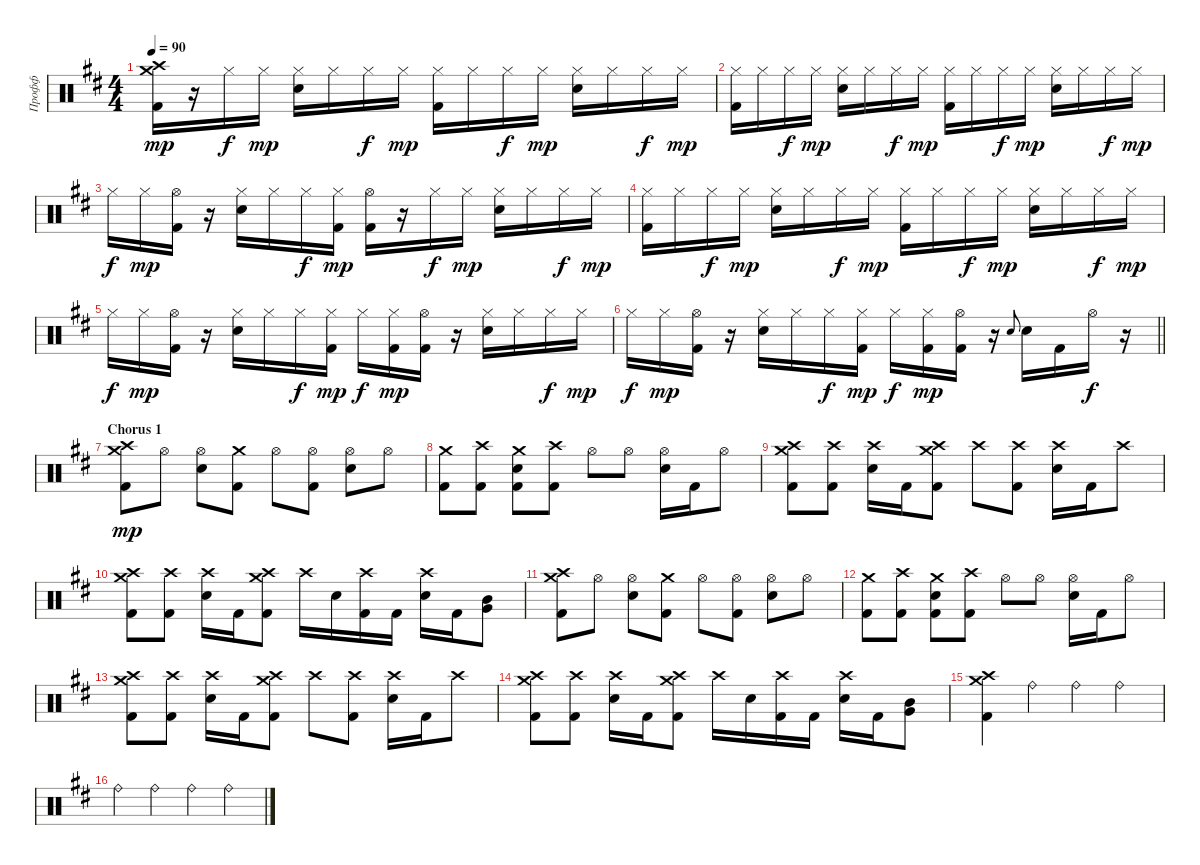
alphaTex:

\track ("Профф" "Профф") {instrument percussion}
\staff {score}
\articulation defaults
\ts (4 4)
\tempo 90
\clef neutral
\ks bminor
("Crash high (hit)" "Crash medium (hit)" "Kick (hit) 2").16{dy mp} r.16 "Hi-Hat (closed)".16{dy f} "Hi-Hat (closed)".16{dy mp} ("Hi-Hat (closed)" "Electric Snare (hit)").16 "Hi-Hat (closed)".16 "Hi-Hat (closed)".16{dy f} "Hi-Hat (closed)".16{dy mp} ("Hi-Hat (closed)" "Kick (hit) 2").16 "Hi-Hat (closed)".16 "Hi-Hat (closed)".16{dy f} "Hi-Hat (closed)".16{dy mp} ("Hi-Hat (closed)" "Electric Snare (hit)").16 "Hi-Hat (closed)".16 "Hi-Hat (closed)".16{dy f} "Hi-Hat (closed)".16{dy mp} |
("Hi-Hat (closed)" "Kick (hit) 2").16 "Hi-Hat (closed)".16 "Hi-Hat (closed)".16{dy f} "Hi-Hat (closed)".16{dy mp} ("Hi-Hat (closed)" "Electric Snare (hit)").16 "Hi-Hat (closed)".16 "Hi-Hat (closed)".16{dy f} "Hi-Hat (closed)".16{dy mp} ("Hi-Hat (closed)" "Kick (hit) 2").16 "Hi-Hat (closed)".16 "Hi-Hat (closed)".16{dy f} "Hi-Hat (closed)".16{dy mp} ("Hi-Hat (closed)" "Electric Snare (hit)").16 "Hi-Hat (closed)".16 "Hi-Hat (closed)".16{dy f} "Hi-Hat (closed)".16{dy mp} |
"Hi-Hat (closed)".16{dy f} "Hi-Hat (closed)".16{dy mp} ("Hi-Hat (open)" "Kick (hit) 2").16 r.16 ("Hi-Hat (closed)" "Electric Snare (hit)").16 "Hi-Hat (closed)".16 "Hi-Hat (closed)".16{dy f} ("Hi-Hat (closed)" "Kick (hit) 2").16{dy mp} ("Hi-Hat (open)" "Kick (hit) 2").16 r.16 "Hi-Hat (closed)".16{dy f} "Hi-Hat (closed)".16{dy mp} ("Hi-Hat (closed)" "Electric Snare (hit)").16 "Hi-Hat (closed)".16 "Hi-Hat (closed)".16{dy f} "Hi-Hat (closed)".16{dy mp} |
("Hi-Hat (closed)" "Kick (hit) 2").16 "Hi-Hat (closed)".16 "Hi-Hat (closed)".16{dy f} "Hi-Hat (closed)".16{dy mp} ("Hi-Hat (closed)" "Electric Snare (hit)").16 "Hi-Hat (closed)".16 "Hi-Hat (closed)".16{dy f} "Hi-Hat (closed)".16{dy mp} ("Hi-Hat (closed)" "Kick (hit) 2").16 "Hi-Hat (closed)".16 "Hi-Hat (closed)".16{dy f} "Hi-Hat (closed)".16{dy mp} ("Hi-Hat (closed)" "Electric Snare (hit)").16 "Hi-Hat (closed)".16 "Hi-Hat (closed)".16{dy f} "Hi-Hat (closed)".16{dy mp} |
"Hi-Hat (closed)".16{dy f} "Hi-Hat (closed)".16{dy mp} ("Hi-Hat (open)" "Kick (hit) 2").16 r.16 ("Hi-Hat (closed)" "Electric Snare (hit)").16 "Hi-Hat (closed)".16 "Hi-Hat (closed)".16{dy f} ("Hi-Hat (closed)" "Kick (hit) 2").16{dy mp} "Hi-Hat (closed)".16{dy f} ("Hi-Hat (closed)" "Kick (hit) 2").16{dy mp} ("Hi-Hat (open)" "Kick (hit) 2").16 r.16 ("Hi-Hat (closed)" "Electric Snare (hit)").16 "Hi-Hat (closed)".16 "Hi-Hat (closed)".16{dy f} "Hi-Hat (closed)".16{dy mp} |
\barLineRight lightlight "Hi-Hat (closed)".16{dy f} "Hi-Hat (closed)".16{dy mp}
("Hi-Hat (open)" "Kick (hit) 2").16 r.16 ("Hi-Hat (closed)" "Electric Snare (hit)").16 "Hi-Hat (closed)".16 "Hi-Hat (closed)".16{dy f} ("Hi-Hat (closed)" "Kick (hit) 2").16{dy mp} "Hi-Hat (closed)".16{dy f} ("Hi-Hat (closed)" "Kick (hit) 2").16{dy mp} ("Hi-Hat (open)" "Kick (hit) 2").16 r.16 "Electric Snare (hit)".8{gr onbeat} "Electric Snare (hit)".16 "Kick (hit) 2".16 "Hi-Hat (open)".16{dy f} r.16 |
\section ("" "Chorus 1")
("Crash medium (hit)" "Crash high (hit)" "Kick (hit) 2").8{dy mp} "Hi-Hat (open)".8 ("Hi-Hat (open)" "Electric Snare (hit)").8 ("Crash medium (hit)" "Kick (hit) 2").8 "Hi-Hat (open)".8 ("Hi-Hat (open)" "Kick (hit) 2").8 ("Hi-Hat (open)" "Electric Snare (hit)").8 "Hi-Hat (open)".8 |
("Crash medium (hit)" "Kick (hit) 2").8 ("Crash high (hit)" "Kick (hit) 2").8 ("Crash medium (hit)" "Electric Snare (hit)" "Kick (hit) 2").8 ("Crash high (hit)" "Kick (hit) 2").8 "Hi-Hat (open)".8 "Hi-Hat (open)".8 ("Hi-Hat (open)" "Electric Snare (hit)").16 "Kick (hit) 2".16 "Hi-Hat (open)".8 |
("Crash high (hit)" "Crash medium (hit)" "Kick (hit) 2").8 ("Crash high (hit)" "Kick (hit) 2").8 ("Crash high (hit)" "Electric Snare (hit)").16 "Kick (hit) 2".16 ("Crash high (hit)" "Crash medium (hit)" "Kick (hit) 2").8 "Crash high (hit)".8 ("Crash high (hit)" "Kick (hit) 2").8 ("Crash high (hit)" "Electric Snare (hit)").16 "Kick (hit) 2".16 "Crash high (hit)".8 |
("Crash high (hit)" "Crash medium (hit)" "Kick (hit) 2").8 ("Crash high (hit)" "Kick (hit) 2").8 ("Crash high (hit)" "Electric Snare (hit)").16 "Kick (hit) 2".16 ("Crash high (hit)" "Crash medium (hit)" "Kick (hit) 2").8 "Crash high (hit)".16 "Electric Snare (hit)".16 ("Crash high (hit)" "Kick (hit) 2").16 "Kick (hit) 2".16 ("Crash high (hit)" "Electric Snare (hit)").16 "Kick (hit) 2".16 ("Mid Tom (hit)" "Very Low Tom (hit)").8 |
("Crash medium (hit)" "Crash high (hit)" "Kick (hit) 2").8 "Hi-Hat (open)".8 ("Hi-Hat (open)" "Electric Snare (hit)").8 ("Crash medium (hit)" "Kick (hit) 2").8 "Hi-Hat (open)".8 ("Hi-Hat (open)" "Kick (hit) 2").8 ("Hi-Hat (open)" "Electric Snare (hit)").8 "Hi-Hat (open)".8 |
("Crash medium (hit)" "Kick (hit) 2").8 ("Crash high (hit)" "Kick (hit) 2").8 ("Crash medium (hit)" "Electric Snare (hit)" "Kick (hit) 2").8 ("Crash high (hit)" "Kick (hit) 2").8 "Hi-Hat (open)".8 "Hi-Hat (open)".8 ("Hi-Hat (open)" "Electric Snare (hit)").16 "Kick (hit) 2".16 "Hi-Hat (open)".8 |
("Crash high (hit)" "Crash medium (hit)" "Kick (hit) 2").8 ("Crash high (hit)" "Kick (hit) 2").8 ("Crash high (hit)" "Electric Snare (hit)").16 "Kick (hit) 2".16 ("Crash high (hit)" "Crash medium (hit)" "Kick (hit) 2").8 "Crash high (hit)".8 ("Crash high (hit)" "Kick (hit) 2").8 ("Crash high (hit)" "Electric Snare (hit)").16 "Kick (hit) 2".16 "Crash high (hit)".8 |
("Crash high (hit)" "Crash medium (hit)" "Kick (hit) 2").8 ("Crash high (hit)" "Kick (hit) 2").8 ("Crash high (hit)" "Electric Snare (hit)").16 "Kick (hit) 2".16 ("Crash high (hit)" "Crash medium (hit)" "Kick (hit) 2").8 "Crash high (hit)".16 "Electric Snare (hit)".16 ("Crash high (hit)" "Kick (hit) 2").16 "Kick (hit) 2".16 ("Crash high (hit)" "Electric Snare (hit)").16 "Kick (hit) 2".16 ("Mid Tom (hit)" "Very Low Tom (hit)").8 |
("Crash medium (hit)" "Crash high (hit)" "Kick (hit) 2").4 "Ride (bell)".4 "Ride (bell)".4 "Ride (bell)".4 |
"Ride (bell)".4 "Ride (bell)".4 "Ride (bell)".4 "Ride (bell)".4
